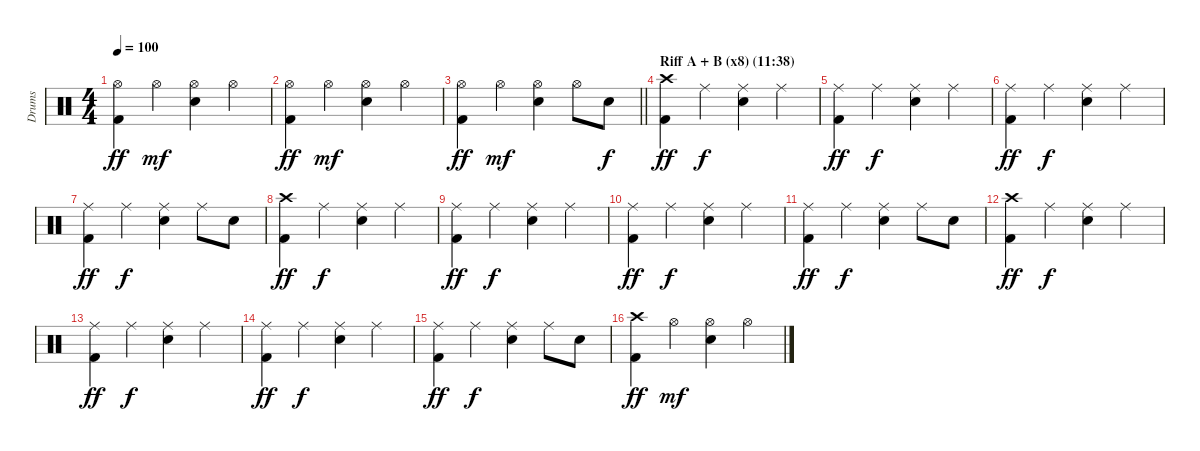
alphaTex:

\track ("Drums" "Drums") {instrument percussion}
\staff {score}
\articulation defaults
\ts (4 4)
\tempo 100
\clef neutral
\ks c
("Hi-Hat (open)" "Kick (hit) 2").4{dy ff} "Hi-Hat (open)".4{dy mf} ("Hi-Hat (open)" "Electric Snare (hit)").4 "Hi-Hat (open)".4 |
("Hi-Hat (open)" "Kick (hit) 2").4{dy ff} "Hi-Hat (open)".4{dy mf} ("Hi-Hat (open)" "Electric Snare (hit)").4 "Hi-Hat (open)".4 |
\barLineRight lightlight
("Hi-Hat (open)" "Kick (hit) 2").4{dy ff} "Hi-Hat (open)".4{dy mf} ("Hi-Hat (open)" "Electric Snare (hit)").4 "Hi-Hat (open)".8 "Electric Snare (hit)".8{dy f} |
\section ("" "Riff A + B (x8) (11:38)")
("Crash high (hit)" "Kick (hit) 2").4{dy ff} "Ride (middle)".4{dy f} ("Ride (middle)" "Electric Snare (hit)").4 "Ride (middle)".4 |
("Ride (middle)" "Kick (hit) 2").4{dy ff} "Ride (middle)".4{dy f} ("Ride (middle)" "Electric Snare (hit)").4 "Ride (middle)".4 |
("Ride (middle)" "Kick (hit) 2").4{dy ff} "Ride (middle)".4{dy f} ("Ride (middle)" "Electric Snare (hit)").4 "Ride (middle)".4 |
("Ride (middle)" "Kick (hit) 2").4{dy ff} "Ride (middle)".4{dy f} ("Ride (middle)" "Electric Snare (hit)").4 "Ride (middle)".8 "Electric Snare (hit)".8 |
("Crash high (hit)" "Kick (hit) 2").4{dy ff} "Ride (middle)".4{dy f} ("Ride (middle)" "Electric Snare (hit)").4 "Ride (middle)".4 |
("Ride (middle)" "Kick (hit) 2").4{dy ff} "Ride (middle)".4{dy f} ("Ride (middle)" "Electric Snare (hit)").4 "Ride (middle)".4 |
("Ride (middle)" "Kick (hit) 2").4{dy ff} "Ride (middle)".4{dy f} ("Ride (middle)" "Electric Snare (hit)").4 "Ride (middle)".4 |
("Ride (middle)" "Kick (hit) 2").4{dy ff} "Ride (middle)".4{dy f} ("Ride (middle)" "Electric Snare (hit)").4 "Ride (middle)".8 "Electric Snare (hit)".8 |
("Crash high (hit)" "Kick (hit) 2").4{dy ff} "Ride (middle)".4{dy f} ("Ride (middle)" "Electric Snare (hit)").4 "Ride (middle)".4 |
("Ride (middle)" "Kick (hit) 2").4{dy ff} "Ride (middle)".4{dy f} ("Ride (middle)" "Electric Snare (hit)").4 "Ride (middle)".4 |
("Ride (middle)" "Kick (hit) 2").4{dy ff} "Ride (middle)".4{dy f} ("Ride (middle)" "Electric Snare (hit)").4 "Ride (middle)".4 |
("Ride (middle)" "Kick (hit) 2").4{dy ff} "Ride (middle)".4{dy f} ("Ride (middle)" "Electric Snare (hit)").4 "Ride (middle)".8 "Electric Snare (hit)".8 |
("Crash high (hit)" "Kick (hit) 2").4{dy ff} "Hi-Hat (open)".4{dy mf} ("Hi-Hat (open)" "Electric Snare (hit)").4 "Hi-Hat (open)".4
